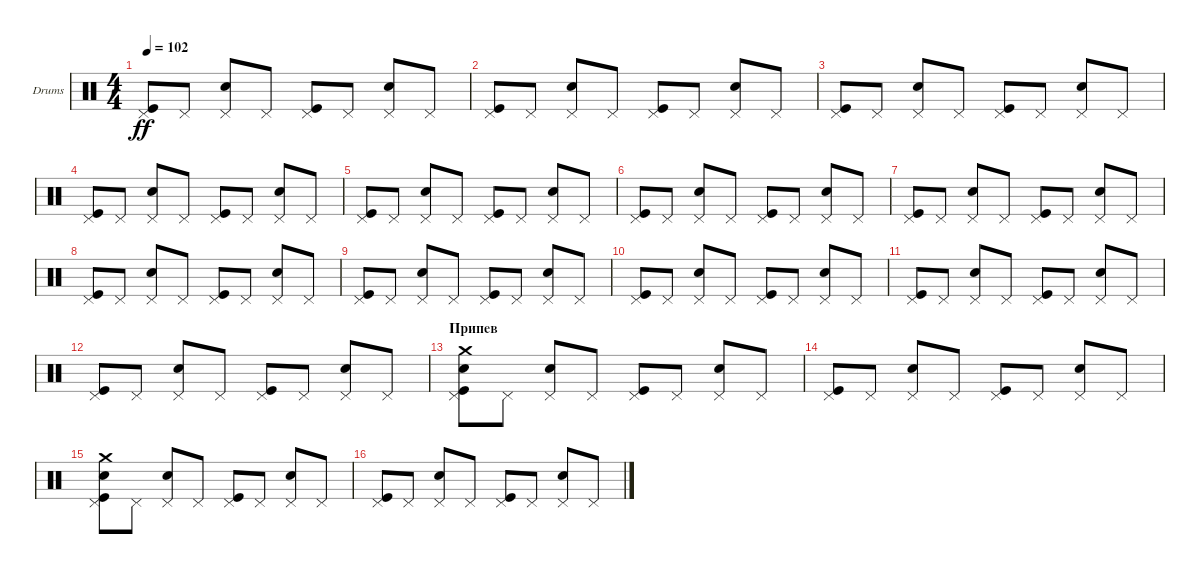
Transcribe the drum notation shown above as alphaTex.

\defaultSystemsLayout 4
\bracketExtendMode groupsimilarinstruments
\firstSystemTrackNameOrientation horizontal
\otherSystemsTrackNameOrientation horizontal
\track ("Е. Кулаков" "Drums") {instrument percussion}
\staff {score}
\articulation defaults
\ts (4 4)
\tempo 102
\clef neutral
\ks c
("Pedal Hi-Hat (hit)" "Kick (hit)").8{dy ff} "Pedal Hi-Hat (hit)".8 ("Pedal Hi-Hat (hit)" "Snare (hit) 2").8 "Pedal Hi-Hat (hit)".8 ("Pedal Hi-Hat (hit)" "Kick (hit)").8 "Pedal Hi-Hat (hit)".8 ("Pedal Hi-Hat (hit)" "Snare (hit) 2").8 "Pedal Hi-Hat (hit)".8 |
("Pedal Hi-Hat (hit)" "Kick (hit)").8 "Pedal Hi-Hat (hit)".8 ("Pedal Hi-Hat (hit)" "Snare (hit) 2").8 "Pedal Hi-Hat (hit)".8 ("Pedal Hi-Hat (hit)" "Kick (hit)").8 "Pedal Hi-Hat (hit)".8 ("Pedal Hi-Hat (hit)" "Snare (hit) 2").8 "Pedal Hi-Hat (hit)".8 |
("Pedal Hi-Hat (hit)" "Kick (hit)").8 "Pedal Hi-Hat (hit)".8 ("Pedal Hi-Hat (hit)" "Snare (hit) 2").8 "Pedal Hi-Hat (hit)".8 ("Pedal Hi-Hat (hit)" "Kick (hit)").8 "Pedal Hi-Hat (hit)".8 ("Pedal Hi-Hat (hit)" "Snare (hit) 2").8 "Pedal Hi-Hat (hit)".8 |
("Pedal Hi-Hat (hit)" "Kick (hit)").8 "Pedal Hi-Hat (hit)".8 ("Pedal Hi-Hat (hit)" "Snare (hit) 2").8 "Pedal Hi-Hat (hit)".8 ("Pedal Hi-Hat (hit)" "Kick (hit)").8 "Pedal Hi-Hat (hit)".8 ("Pedal Hi-Hat (hit)" "Snare (hit) 2").8 "Pedal Hi-Hat (hit)".8 |
("Pedal Hi-Hat (hit)" "Kick (hit)").8 "Pedal Hi-Hat (hit)".8 ("Pedal Hi-Hat (hit)" "Snare (hit) 2").8 "Pedal Hi-Hat (hit)".8 ("Pedal Hi-Hat (hit)" "Kick (hit)").8 "Pedal Hi-Hat (hit)".8 ("Pedal Hi-Hat (hit)" "Snare (hit) 2").8 "Pedal Hi-Hat (hit)".8 |
("Pedal Hi-Hat (hit)" "Kick (hit)").8 "Pedal Hi-Hat (hit)".8 ("Pedal Hi-Hat (hit)" "Snare (hit) 2").8 "Pedal Hi-Hat (hit)".8 ("Pedal Hi-Hat (hit)" "Kick (hit)").8 "Pedal Hi-Hat (hit)".8 ("Pedal Hi-Hat (hit)" "Snare (hit) 2").8 "Pedal Hi-Hat (hit)".8 |
("Pedal Hi-Hat (hit)" "Kick (hit)").8 "Pedal Hi-Hat (hit)".8 ("Pedal Hi-Hat (hit)" "Snare (hit) 2").8 "Pedal Hi-Hat (hit)".8 ("Pedal Hi-Hat (hit)" "Kick (hit)").8 "Pedal Hi-Hat (hit)".8 ("Pedal Hi-Hat (hit)" "Snare (hit) 2").8 "Pedal Hi-Hat (hit)".8 |
("Pedal Hi-Hat (hit)" "Kick (hit)").8 "Pedal Hi-Hat (hit)".8 ("Pedal Hi-Hat (hit)" "Snare (hit) 2").8 "Pedal Hi-Hat (hit)".8 ("Pedal Hi-Hat (hit)" "Kick (hit)").8 "Pedal Hi-Hat (hit)".8 ("Pedal Hi-Hat (hit)" "Snare (hit) 2").8 "Pedal Hi-Hat (hit)".8 |
("Pedal Hi-Hat (hit)" "Kick (hit)").8 "Pedal Hi-Hat (hit)".8 ("Pedal Hi-Hat (hit)" "Snare (hit) 2").8 "Pedal Hi-Hat (hit)".8 ("Pedal Hi-Hat (hit)" "Kick (hit)").8 "Pedal Hi-Hat (hit)".8 ("Pedal Hi-Hat (hit)" "Snare (hit) 2").8 "Pedal Hi-Hat (hit)".8 |
("Pedal Hi-Hat (hit)" "Kick (hit)").8 "Pedal Hi-Hat (hit)".8 ("Pedal Hi-Hat (hit)" "Snare (hit) 2").8 "Pedal Hi-Hat (hit)".8 ("Pedal Hi-Hat (hit)" "Kick (hit)").8 "Pedal Hi-Hat (hit)".8 ("Pedal Hi-Hat (hit)" "Snare (hit) 2").8 "Pedal Hi-Hat (hit)".8 |
("Pedal Hi-Hat (hit)" "Kick (hit)").8 "Pedal Hi-Hat (hit)".8 ("Pedal Hi-Hat (hit)" "Snare (hit) 2").8 "Pedal Hi-Hat (hit)".8 ("Pedal Hi-Hat (hit)" "Kick (hit)").8 "Pedal Hi-Hat (hit)".8 ("Pedal Hi-Hat (hit)" "Snare (hit) 2").8 "Pedal Hi-Hat (hit)".8 |
("Pedal Hi-Hat (hit)" "Kick (hit)").8 "Pedal Hi-Hat (hit)".8 ("Pedal Hi-Hat (hit)" "Snare (hit) 2").8 "Pedal Hi-Hat (hit)".8 ("Pedal Hi-Hat (hit)" "Kick (hit)").8 "Pedal Hi-Hat (hit)".8 ("Pedal Hi-Hat (hit)" "Snare (hit) 2").8 "Pedal Hi-Hat (hit)".8 |
\section ("" "Припев")
("Pedal Hi-Hat (hit)" "Kick (hit)" "Crash medium (hit)" "Snare (hit) 2").8 "Pedal Hi-Hat (hit)".8 ("Pedal Hi-Hat (hit)" "Snare (hit) 2").8 "Pedal Hi-Hat (hit)".8 ("Pedal Hi-Hat (hit)" "Kick (hit)").8 "Pedal Hi-Hat (hit)".8 ("Pedal Hi-Hat (hit)" "Snare (hit) 2").8 "Pedal Hi-Hat (hit)".8 |
("Pedal Hi-Hat (hit)" "Kick (hit)").8 "Pedal Hi-Hat (hit)".8 ("Pedal Hi-Hat (hit)" "Snare (hit) 2").8 "Pedal Hi-Hat (hit)".8 ("Pedal Hi-Hat (hit)" "Kick (hit)").8 "Pedal Hi-Hat (hit)".8 ("Pedal Hi-Hat (hit)" "Snare (hit) 2").8 "Pedal Hi-Hat (hit)".8 |
("Pedal Hi-Hat (hit)" "Kick (hit)" "Crash medium (hit)" "Snare (hit) 2").8 "Pedal Hi-Hat (hit)".8 ("Pedal Hi-Hat (hit)" "Snare (hit) 2").8 "Pedal Hi-Hat (hit)".8 ("Pedal Hi-Hat (hit)" "Kick (hit)").8 "Pedal Hi-Hat (hit)".8 ("Pedal Hi-Hat (hit)" "Snare (hit) 2").8 "Pedal Hi-Hat (hit)".8 |
("Pedal Hi-Hat (hit)" "Kick (hit)").8 "Pedal Hi-Hat (hit)".8 ("Pedal Hi-Hat (hit)" "Snare (hit) 2").8 "Pedal Hi-Hat (hit)".8 ("Pedal Hi-Hat (hit)" "Kick (hit)").8 "Pedal Hi-Hat (hit)".8 ("Pedal Hi-Hat (hit)" "Snare (hit) 2").8 "Pedal Hi-Hat (hit)".8
